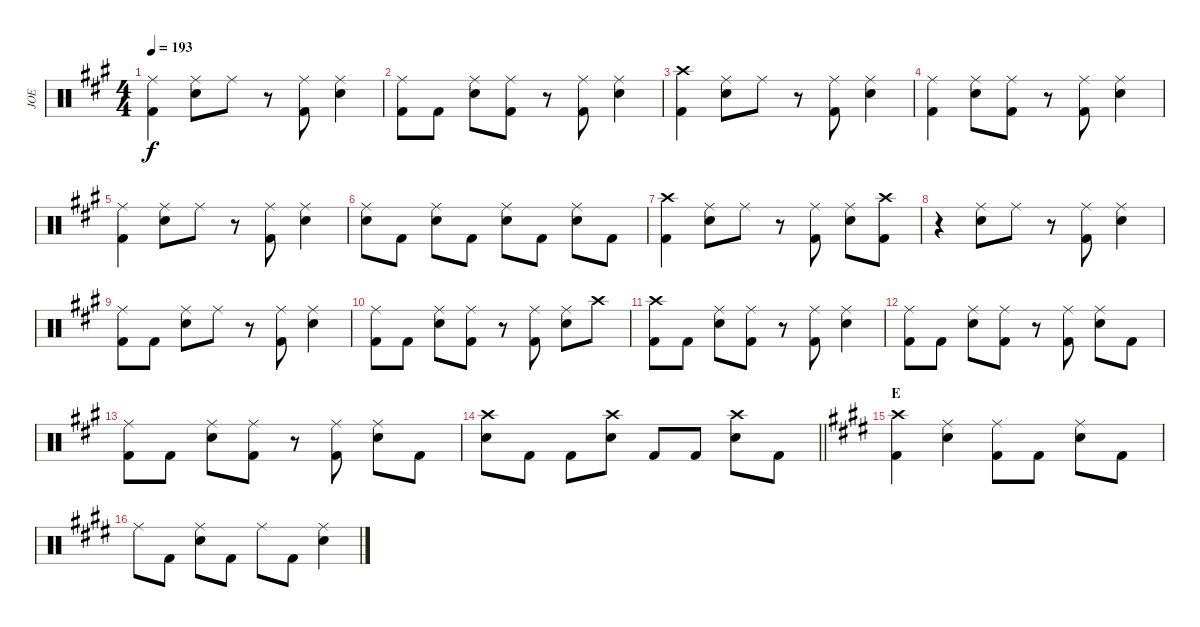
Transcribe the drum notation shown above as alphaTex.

\track ("JOE" "JOE") {instrument percussion}
\staff {score}
\articulation defaults
\ts (4 4)
\tempo 193
\clef neutral
\ks a
("Ride (middle)" "Kick (hit) 2").4{dy f} ("Ride (middle)" "Snare (hit) 2").8 "Ride (middle)".8 r.8 ("Ride (middle)" "Kick (hit) 2").8 ("Ride (middle)" "Snare (hit) 2").4 |
("Ride (middle)" "Kick (hit) 2").8 "Kick (hit) 2".8 ("Ride (middle)" "Snare (hit) 2").8 ("Ride (middle)" "Kick (hit) 2").8 r.8 ("Ride (middle)" "Kick (hit) 2").8 ("Ride (middle)" "Snare (hit) 2").4 |
("Crash high (hit)" "Kick (hit) 2").4 ("Ride (middle)" "Snare (hit) 2").8 "Ride (middle)".8 r.8 ("Ride (middle)" "Kick (hit) 2").8 ("Ride (middle)" "Snare (hit) 2").4 |
("Ride (middle)" "Kick (hit) 2").4 ("Ride (middle)" "Snare (hit) 2").8 ("Ride (middle)" "Kick (hit) 2").8 r.8 ("Ride (middle)" "Kick (hit) 2").8 ("Ride (middle)" "Snare (hit) 2").4 |
("Ride (middle)" "Kick (hit) 2").4 ("Ride (middle)" "Snare (hit) 2").8 "Ride (middle)".8 r.8 ("Ride (middle)" "Kick (hit) 2").8 ("Ride (middle)" "Snare (hit) 2").4 |
("Ride (middle)" "Snare (hit) 2").8 "Kick (hit) 2".8 ("Ride (middle)" "Snare (hit) 2").8 "Kick (hit) 2".8 ("Ride (middle)" "Snare (hit) 2").8 "Kick (hit) 2".8 ("Ride (middle)" "Snare (hit) 2").8 "Kick (hit) 2".8 |
("Crash high (hit)" "Kick (hit) 2").4 ("Ride (middle)" "Snare (hit) 2").8 "Ride (middle)".8 r.8 ("Ride (middle)" "Kick (hit) 2").8 ("Ride (middle)" "Snare (hit) 2").8 ("Crash high (hit)" "Kick (hit) 2").8 |
r.4 ("Ride (middle)" "Snare (hit) 2").8 "Ride (middle)".8 r.8 ("Ride (middle)" "Kick (hit) 2").8 ("Ride (middle)" "Snare (hit) 2").4 |
("Ride (middle)" "Kick (hit) 2").8 "Kick (hit) 2".8 ("Ride (middle)" "Snare (hit) 2").8 "Ride (middle)".8 r.8 ("Ride (middle)" "Kick (hit) 2").8 ("Ride (middle)" "Snare (hit) 2").4 |
("Ride (middle)" "Kick (hit) 2").8 "Kick (hit) 2".8 ("Ride (middle)" "Snare (hit) 2").8 ("Ride (middle)" "Kick (hit) 2").8 r.8 ("Ride (middle)" "Kick (hit) 2").8 ("Ride (middle)" "Snare (hit) 2").8 "Crash high (hit)".8 |
("Crash high (hit)" "Kick (hit) 2").8 "Kick (hit) 2".8 ("Ride (middle)" "Snare (hit) 2").8 ("Ride (middle)" "Kick (hit) 2").8 r.8 ("Ride (middle)" "Kick (hit) 2").8 ("Ride (middle)" "Snare (hit) 2").4 |
("Ride (middle)" "Kick (hit) 2").8 "Kick (hit) 2".8 ("Ride (middle)" "Snare (hit) 2").8 ("Ride (middle)" "Kick (hit) 2").8 r.8 ("Ride (middle)" "Kick (hit) 2").8 ("Ride (middle)" "Snare (hit) 2").8 "Kick (hit) 2".8 |
("Ride (middle)" "Kick (hit) 2").8 "Kick (hit) 2".8 ("Ride (middle)" "Snare (hit) 2").8 ("Ride (middle)" "Kick (hit) 2").8 r.8 ("Ride (middle)" "Kick (hit) 2").8 ("Ride (middle)" "Snare (hit) 2").8 "Kick (hit) 2".8 |
\barLineRight lightlight
("Crash high (hit)" "Snare (hit) 2").8 "Kick (hit) 2".8 "Kick (hit) 2".8 ("Crash high (hit)" "Snare (hit) 2").8 "Kick (hit) 2".8 "Kick (hit) 2".8 ("Crash high (hit)" "Snare (hit) 2").8 "Kick (hit) 2".8 |
\section ("" "E")
\ks c#minor
("Crash high (hit)" "Kick (hit) 2").4 ("Ride (middle)" "Snare (hit) 2").4 ("Ride (middle)" "Kick (hit) 2").8 "Kick (hit) 2".8 ("Ride (middle)" "Snare (hit) 2").8 "Kick (hit) 2".8 |
"Ride (middle)".8 "Kick (hit) 2".8 ("Ride (middle)" "Snare (hit) 2").8 "Kick (hit) 2".8 "Ride (middle)".8 "Kick (hit) 2".8 ("Ride (middle)" "Snare (hit) 2").4
